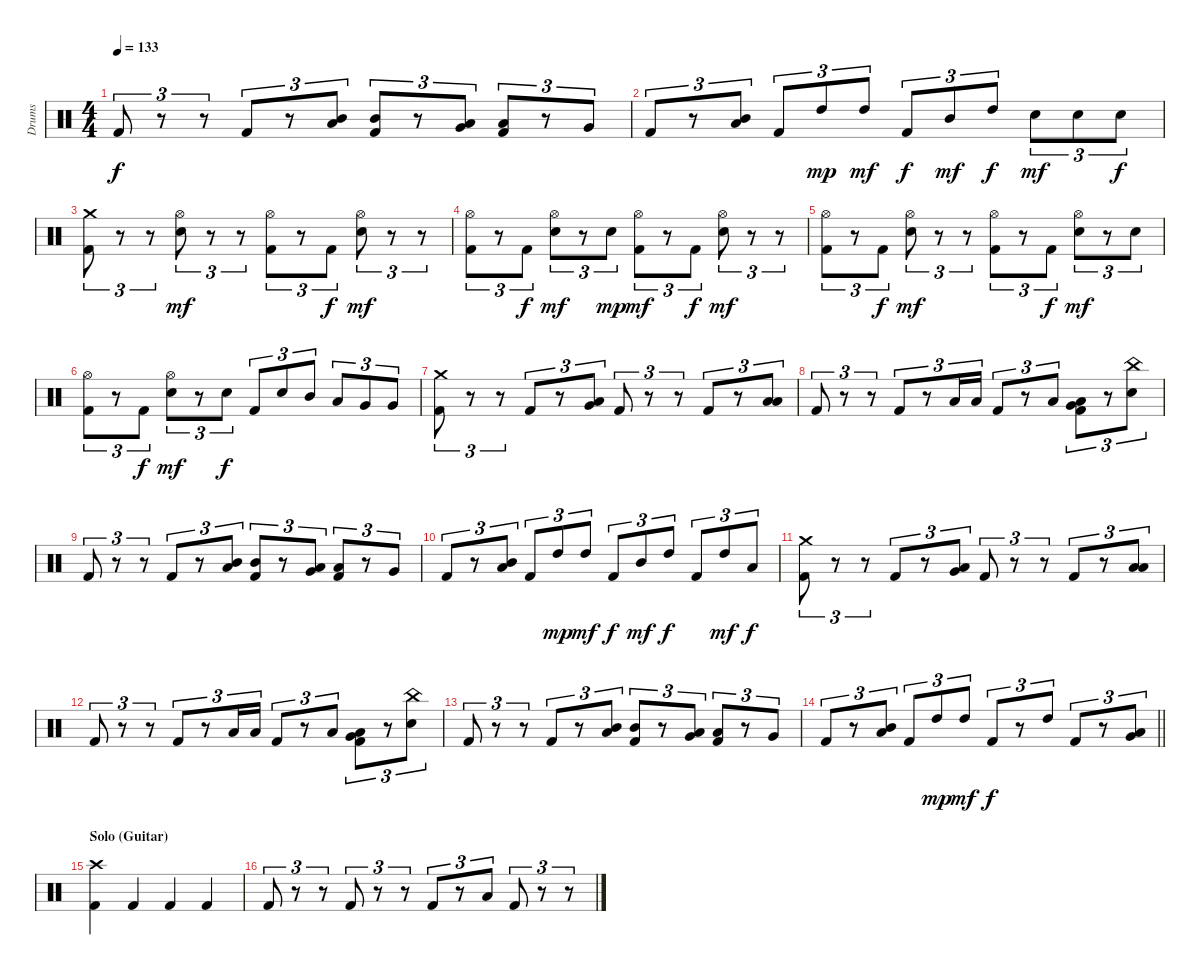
\track ("Drums" "Drums") {instrument percussion}
\staff {score}
\articulation defaults
\ts (4 4)
\tempo 133
\clef neutral
\ks c "Kick (hit) 2".8{tu (3 2) dy f}
r.8{tu (3 2)} r.8{tu (3 2)} "Kick (hit) 2".8{tu (3 2)} r.8{tu (3 2)} ("Low Tom (hit)" "Mid Tom (hit)").8{tu (3 2)} ("Mid Tom (hit)" "Kick (hit) 2").8{tu (3 2)} r.8{tu (3 2)} ("Low Tom (hit)" "Very Low Tom (hit)").8{tu (3 2)} ("Low Tom (hit)" "Kick (hit) 2").8{tu (3 2)} r.8{tu (3 2)} "Very Low Tom (hit)".8{tu (3 2)} |
"Kick (hit) 2".8{tu (3 2)} r.8{tu (3 2)} ("Mid Tom (hit)" "Low Tom (hit)").8{tu (3 2)} "Kick (hit) 2".8{tu (3 2)} "High Tom (hit)".8{tu (3 2) dy mp} "High Tom (hit)".8{tu (3 2) dy mf} "Kick (hit) 2".8{tu (3 2) dy f} "Mid Tom (hit)".8{tu (3 2) dy mf} "High Tom (hit)".8{tu (3 2) dy f} "Electric Snare (hit)".8{tu (3 2) dy mf} "Electric Snare (hit)".8{tu (3 2)} "Electric Snare (hit)".8{tu (3 2) dy f} |
("Crash medium (hit)" "Kick (hit) 2").8{tu (3 2)} r.8{tu (3 2)} r.8{tu (3 2)} ("Hi-Hat (open)" "Electric Snare (hit)").8{tu (3 2) dy mf} r.8{tu (3 2)} r.8{tu (3 2)} ("Hi-Hat (open)" "Kick (hit) 2").8{tu (3 2)} r.8{tu (3 2)} "Kick (hit) 2".8{tu (3 2) dy f} ("Hi-Hat (open)" "Electric Snare (hit)").8{tu (3 2) dy mf} r.8{tu (3 2)} r.8{tu (3 2)} |
("Hi-Hat (open)" "Kick (hit) 2").8{tu (3 2)} r.8{tu (3 2)} "Kick (hit) 2".8{tu (3 2) dy f} ("Hi-Hat (open)" "Electric Snare (hit)").8{tu (3 2) dy mf} r.8{tu (3 2)} "Electric Snare (hit)".8{tu (3 2) dy mp} ("Hi-Hat (open)" "Kick (hit) 2").8{tu (3 2) dy mf} r.8{tu (3 2)} "Kick (hit) 2".8{tu (3 2) dy f} ("Hi-Hat (open)" "Electric Snare (hit)").8{tu (3 2) dy mf} r.8{tu (3 2)} r.8{tu (3 2)} |
("Hi-Hat (open)" "Kick (hit) 2").8{tu (3 2)} r.8{tu (3 2)} "Kick (hit) 2".8{tu (3 2) dy f} ("Hi-Hat (open)" "Electric Snare (hit)").8{tu (3 2) dy mf} r.8{tu (3 2)} r.8{tu (3 2)} ("Hi-Hat (open)" "Kick (hit) 2").8{tu (3 2)} r.8{tu (3 2)} "Kick (hit) 2".8{tu (3 2) dy f} ("Hi-Hat (open)" "Electric Snare (hit)").8{tu (3 2) dy mf} r.8{tu (3 2)} "Electric Snare (hit)".8{tu (3 2)} |
("Hi-Hat (open)" "Kick (hit) 2").8{tu (3 2)} r.8{tu (3 2)} "Kick (hit) 2".8{tu (3 2) dy f} ("Hi-Hat (open)" "Electric Snare (hit)").8{tu (3 2) dy mf} r.8{tu (3 2)} "Electric Snare (hit)".8{tu (3 2) dy f} "Kick (hit) 2".8{tu (3 2)} "Electric Snare (hit)".8{tu (3 2)} "Mid Tom (hit)".8{tu (3 2)} "Low Tom (hit)".8{tu (3 2)} "Very Low Tom (hit)".8{tu (3 2)} "Very Low Tom (hit)".8{tu (3 2)} |
("Crash medium (hit)" "Kick (hit) 2").8{tu (3 2)} r.8{tu (3 2)} r.8{tu (3 2)} "Kick (hit) 2".8{tu (3 2)} r.8{tu (3 2)} ("Low Tom (hit)" "Very Low Tom (hit)").8{tu (3 2)} "Kick (hit) 2".8{tu (3 2)} r.8{tu (3 2)} r.8{tu (3 2)} "Kick (hit) 2".8{tu (3 2)} r.8{tu (3 2)} ("Low Tom (hit)" "Low Floor Tom (hit)").8{tu (3 2)} |
"Kick (hit) 2".8{tu (3 2)} r.8{tu (3 2)} r.8{tu (3 2)} "Kick (hit) 2".8{tu (3 2)} r.8{tu (3 2)} "Low Tom (hit)".16{tu (3 2)} "Low Tom (hit)".16{tu (3 2)} "Kick (hit) 2".8{tu (3 2)} r.8{tu (3 2)} "Low Floor Tom (hit)".8{tu (3 2)} ("Low Floor Tom (hit)" "Very Low Tom (hit)" "Kick (hit) 2").8{tu (3 2)} r.8{tu (3 2)} ("China (hit)" "Electric Snare (hit)").8{tu (3 2)} |
"Kick (hit) 2".8{tu (3 2)} r.8{tu (3 2)} r.8{tu (3 2)} "Kick (hit) 2".8{tu (3 2)} r.8{tu (3 2)} ("Low Tom (hit)" "Mid Tom (hit)").8{tu (3 2)} ("Mid Tom (hit)" "Kick (hit) 2").8{tu (3 2)} r.8{tu (3 2)} ("Low Tom (hit)" "Very Low Tom (hit)").8{tu (3 2)} ("Low Tom (hit)" "Kick (hit) 2").8{tu (3 2)} r.8{tu (3 2)} "Very Low Tom (hit)".8{tu (3 2)} |
"Kick (hit) 2".8{tu (3 2)} r.8{tu (3 2)} ("Mid Tom (hit)" "Low Tom (hit)").8{tu (3 2)} "Kick (hit) 2".8{tu (3 2)} "High Tom (hit)".8{tu (3 2) dy mp} "High Tom (hit)".8{tu (3 2) dy mf} "Kick (hit) 2".8{tu (3 2) dy f} "Mid Tom (hit)".8{tu (3 2) dy mf} "High Tom (hit)".8{tu (3 2) dy f} "Kick (hit) 2".8{tu (3 2)} "High Tom (hit)".8{tu (3 2) dy mf} "Low Tom (hit)".8{tu (3 2) dy f} |
("Crash medium (hit)" "Kick (hit) 2").8{tu (3 2)} r.8{tu (3 2)} r.8{tu (3 2)} "Kick (hit) 2".8{tu (3 2)} r.8{tu (3 2)} ("Low Tom (hit)" "Very Low Tom (hit)").8{tu (3 2)} "Kick (hit) 2".8{tu (3 2)} r.8{tu (3 2)} r.8{tu (3 2)} "Kick (hit) 2".8{tu (3 2)} r.8{tu (3 2)} ("Low Tom (hit)" "Low Floor Tom (hit)").8{tu (3 2)} |
"Kick (hit) 2".8{tu (3 2)} r.8{tu (3 2)} r.8{tu (3 2)} "Kick (hit) 2".8{tu (3 2)} r.8{tu (3 2)} "Low Tom (hit)".16{tu (3 2)} "Low Tom (hit)".16{tu (3 2)} "Kick (hit) 2".8{tu (3 2)} r.8{tu (3 2)} "Low Floor Tom (hit)".8{tu (3 2)} ("Low Floor Tom (hit)" "Very Low Tom (hit)" "Kick (hit) 2").8{tu (3 2)} r.8{tu (3 2)} ("China (hit)" "Electric Snare (hit)").8{tu (3 2)} |
"Kick (hit) 2".8{tu (3 2)} r.8{tu (3 2)} r.8{tu (3 2)} "Kick (hit) 2".8{tu (3 2)} r.8{tu (3 2)} ("Low Tom (hit)" "Mid Tom (hit)").8{tu (3 2)} ("Mid Tom (hit)" "Kick (hit) 2").8{tu (3 2)} r.8{tu (3 2)} ("Low Tom (hit)" "Very Low Tom (hit)").8{tu (3 2)} ("Low Tom (hit)" "Kick (hit) 2").8{tu (3 2)} r.8{tu (3 2)} "Very Low Tom (hit)".8{tu (3 2)} |
\barLineRight lightlight "Kick (hit) 2".8{tu (3 2)}
r.8{tu (3 2)} ("Mid Tom (hit)" "Low Tom (hit)").8{tu (3 2)} "Kick (hit) 2".8{tu (3 2)} "High Tom (hit)".8{tu (3 2) dy mp} "High Tom (hit)".8{tu (3 2) dy mf} "Kick (hit) 2".8{tu (3 2) dy f} r.8{tu (3 2)} "High Tom (hit)".8{tu (3 2)} "Kick (hit) 2".8{tu (3 2)} r.8{tu (3 2)} ("Very Low Tom (hit)" "Low Tom (hit)").8{tu (3 2)} |
\section ("" "Solo (Guitar)")
("Crash high (hit)" "Kick (hit) 2").4 "Kick (hit) 2".4 "Kick (hit) 2".4 "Kick (hit) 2".4 |
"Kick (hit) 2".8{tu (3 2)} r.8{tu (3 2)} r.8{tu (3 2)} "Kick (hit) 2".8{tu (3 2)} r.8{tu (3 2)} r.8{tu (3 2)} "Kick (hit) 2".8{tu (3 2)} r.8{tu (3 2)} "Low Tom (hit)".8{tu (3 2)} "Kick (hit) 2".8{tu (3 2)} r.8{tu (3 2)} r.8{tu (3 2)}
